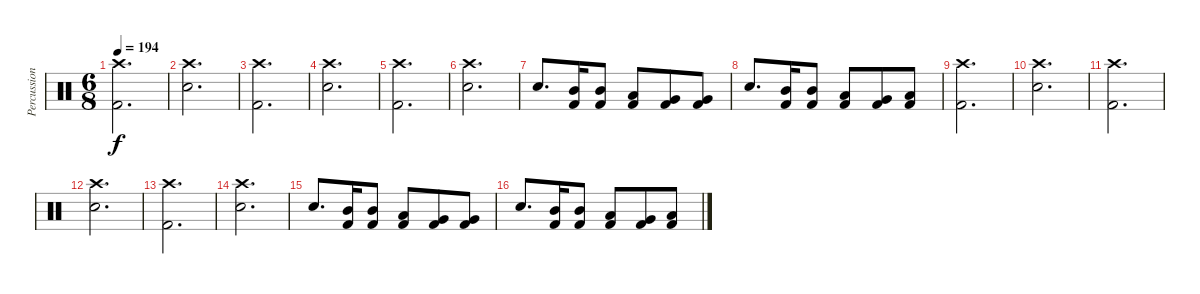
\track ("Percussion" "Percussion") {instrument percussion}
\staff {score}
\articulation defaults
\ts (6 8)
\tempo 194
\clef neutral
\ks c
("Kick (hit) 2" "Crash high (hit)").2{d dy f} |
("Snare (hit) 2" "Crash high (hit)").2{d} |
("Kick (hit) 2" "Crash high (hit)").2{d} |
("Snare (hit) 2" "Crash high (hit)").2{d} |
("Kick (hit) 2" "Crash high (hit)").2{d} |
("Snare (hit) 2" "Crash high (hit)").2{d} |
"Snare (hit) 2".8{d} ("Kick (hit) 2" "Mid Tom (hit)").16 ("Kick (hit) 2" "Mid Tom (hit)").8 ("Kick (hit) 2" "Low Tom (hit)").8 ("Kick (hit) 2" "Very Low Tom (hit)").8 ("Kick (hit) 2" "Very Low Tom (hit)").8 |
"Snare (hit) 2".8{d} ("Kick (hit) 2" "Mid Tom (hit)").16 ("Kick (hit) 2" "Mid Tom (hit)").8 ("Kick (hit) 2" "Low Tom (hit)").8 ("Kick (hit) 2" "Very Low Tom (hit)").8 ("Kick (hit) 2" "Low Floor Tom (hit)").8 |
("Kick (hit) 2" "Crash high (hit)").2{d} |
("Snare (hit) 2" "Crash high (hit)").2{d} |
("Kick (hit) 2" "Crash high (hit)").2{d} |
("Snare (hit) 2" "Crash high (hit)").2{d} |
("Kick (hit) 2" "Crash high (hit)").2{d} |
("Snare (hit) 2" "Crash high (hit)").2{d} |
"Snare (hit) 2".8{d} ("Kick (hit) 2" "Mid Tom (hit)").16 ("Kick (hit) 2" "Mid Tom (hit)").8 ("Kick (hit) 2" "Low Tom (hit)").8 ("Kick (hit) 2" "Very Low Tom (hit)").8 ("Kick (hit) 2" "Very Low Tom (hit)").8 |
"Snare (hit) 2".8{d} ("Kick (hit) 2" "Mid Tom (hit)").16 ("Kick (hit) 2" "Mid Tom (hit)").8 ("Kick (hit) 2" "Low Tom (hit)").8 ("Kick (hit) 2" "Very Low Tom (hit)").8 ("Kick (hit) 2" "Low Floor Tom (hit)").8
